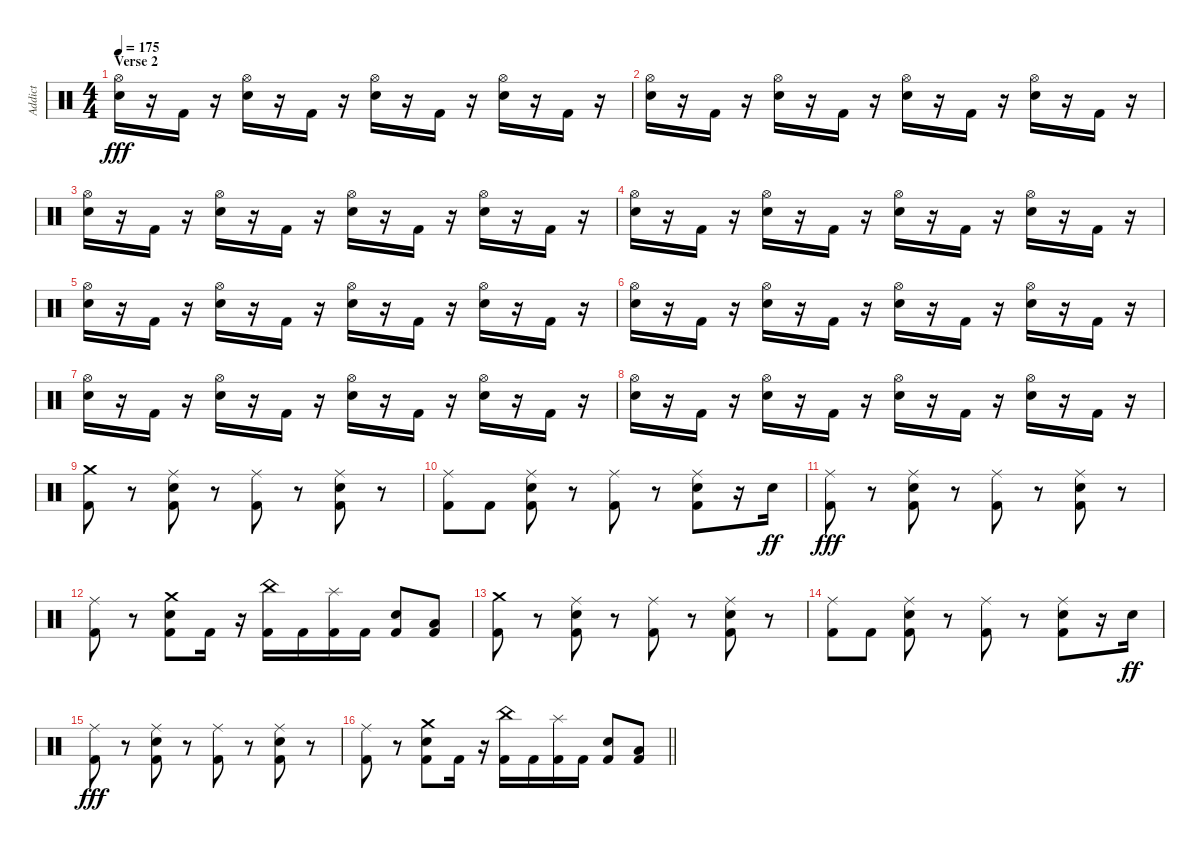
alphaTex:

\track ("Addict" "Addict") {instrument percussion}
\staff {score}
\articulation defaults
\ts (4 4)
\section ("" "Verse 2")
\tempo 175
\clef neutral
\ks c
("Snare (hit) 2" "Hi-Hat (open)").16{dy fff} r.16 "Kick (hit) 2".16 r.16 ("Snare (hit) 2" "Hi-Hat (open)").16 r.16 "Kick (hit) 2".16 r.16 ("Snare (hit) 2" "Hi-Hat (open)").16 r.16 "Kick (hit) 2".16 r.16 ("Snare (hit) 2" "Hi-Hat (open)").16 r.16 "Kick (hit) 2".16 r.16 |
("Snare (hit) 2" "Hi-Hat (open)").16 r.16 "Kick (hit) 2".16 r.16 ("Snare (hit) 2" "Hi-Hat (open)").16 r.16 "Kick (hit) 2".16 r.16 ("Snare (hit) 2" "Hi-Hat (open)").16 r.16 "Kick (hit) 2".16 r.16 ("Snare (hit) 2" "Hi-Hat (open)").16 r.16 "Kick (hit) 2".16 r.16 |
("Snare (hit) 2" "Hi-Hat (open)").16 r.16 "Kick (hit) 2".16 r.16 ("Snare (hit) 2" "Hi-Hat (open)").16 r.16 "Kick (hit) 2".16 r.16 ("Snare (hit) 2" "Hi-Hat (open)").16 r.16 "Kick (hit) 2".16 r.16 ("Snare (hit) 2" "Hi-Hat (open)").16 r.16 "Kick (hit) 2".16 r.16 |
("Snare (hit) 2" "Hi-Hat (open)").16 r.16 "Kick (hit) 2".16 r.16 ("Snare (hit) 2" "Hi-Hat (open)").16 r.16 "Kick (hit) 2".16 r.16 ("Snare (hit) 2" "Hi-Hat (open)").16 r.16 "Kick (hit) 2".16 r.16 ("Snare (hit) 2" "Hi-Hat (open)").16 r.16 "Kick (hit) 2".16 r.16 |
("Snare (hit) 2" "Hi-Hat (open)").16 r.16 "Kick (hit) 2".16 r.16 ("Snare (hit) 2" "Hi-Hat (open)").16 r.16 "Kick (hit) 2".16 r.16 ("Snare (hit) 2" "Hi-Hat (open)").16 r.16 "Kick (hit) 2".16 r.16 ("Snare (hit) 2" "Hi-Hat (open)").16 r.16 "Kick (hit) 2".16 r.16 |
("Snare (hit) 2" "Hi-Hat (open)").16 r.16 "Kick (hit) 2".16 r.16 ("Snare (hit) 2" "Hi-Hat (open)").16 r.16 "Kick (hit) 2".16 r.16 ("Snare (hit) 2" "Hi-Hat (open)").16 r.16 "Kick (hit) 2".16 r.16 ("Snare (hit) 2" "Hi-Hat (open)").16 r.16 "Kick (hit) 2".16 r.16 |
("Snare (hit) 2" "Hi-Hat (open)").16 r.16 "Kick (hit) 2".16 r.16 ("Snare (hit) 2" "Hi-Hat (open)").16 r.16 "Kick (hit) 2".16 r.16 ("Snare (hit) 2" "Hi-Hat (open)").16 r.16 "Kick (hit) 2".16 r.16 ("Snare (hit) 2" "Hi-Hat (open)").16 r.16 "Kick (hit) 2".16 r.16 |
("Snare (hit) 2" "Hi-Hat (open)").16 r.16 "Kick (hit) 2".16 r.16 ("Snare (hit) 2" "Hi-Hat (open)").16 r.16 "Kick (hit) 2".16 r.16 ("Snare (hit) 2" "Hi-Hat (open)").16 r.16 "Kick (hit) 2".16 r.16 ("Snare (hit) 2" "Hi-Hat (open)").16 r.16 "Kick (hit) 2".16 r.16 |
("Kick (hit) 2" "Crash medium (hit)").8 r.8 ("Kick (hit) 2" "Snare (hit) 2" "Ride (middle)").8 r.8 ("Kick (hit) 2" "Ride (middle)").8 r.8 ("Kick (hit) 2" "Snare (hit) 2" "Ride (middle)").8 r.8 |
("Kick (hit) 2" "Ride (middle)").8 "Kick (hit) 2".8 ("Kick (hit) 2" "Snare (hit) 2" "Ride (middle)").8 r.8 ("Kick (hit) 2" "Ride (middle)").8 r.8 ("Kick (hit) 2" "Snare (hit) 2" "Ride (middle)").8 r.16 "Snare (hit) 2".16{dy ff} |
("Kick (hit) 2" "Ride (middle)").8{dy fff} r.8 ("Kick (hit) 2" "Snare (hit) 2" "Ride (middle)").8 r.8 ("Kick (hit) 2" "Ride (middle)").8 r.8 ("Kick (hit) 2" "Snare (hit) 2" "Ride (middle)").8 r.8 |
("Kick (hit) 2" "Ride (middle)").8 r.8 ("Kick (hit) 2" "Snare (hit) 2" "Crash medium (hit)").8 "Kick (hit) 2".16 r.16 ("Kick (hit) 2" "China (hit)").16 "Kick (hit) 2".16 ("Kick (hit) 2" "Splash (hit)").16 "Kick (hit) 2".16 ("Kick (hit) 2" "Snare (hit) 2").8 ("Kick (hit) 2" "Low Tom (hit)").8 |
("Kick (hit) 2" "Crash medium (hit)").8 r.8 ("Kick (hit) 2" "Snare (hit) 2" "Ride (middle)").8 r.8 ("Kick (hit) 2" "Ride (middle)").8 r.8 ("Kick (hit) 2" "Snare (hit) 2" "Ride (middle)").8 r.8 |
("Kick (hit) 2" "Ride (middle)").8 "Kick (hit) 2".8 ("Kick (hit) 2" "Snare (hit) 2" "Ride (middle)").8 r.8 ("Kick (hit) 2" "Ride (middle)").8 r.8 ("Kick (hit) 2" "Snare (hit) 2" "Ride (middle)").8 r.16 "Snare (hit) 2".16{dy ff} |
("Kick (hit) 2" "Ride (middle)").8{dy fff} r.8 ("Kick (hit) 2" "Snare (hit) 2" "Ride (middle)").8 r.8 ("Kick (hit) 2" "Ride (middle)").8 r.8 ("Kick (hit) 2" "Snare (hit) 2" "Ride (middle)").8 r.8 |
\barLineRight lightlight
("Kick (hit) 2" "Ride (middle)").8 r.8 ("Kick (hit) 2" "Snare (hit) 2" "Crash medium (hit)").8 "Kick (hit) 2".16 r.16 ("Kick (hit) 2" "China (hit)").16 "Kick (hit) 2".16 ("Kick (hit) 2" "Splash (hit)").16 "Kick (hit) 2".16 ("Kick (hit) 2" "Snare (hit) 2").8 ("Kick (hit) 2" "Low Tom (hit)").8
